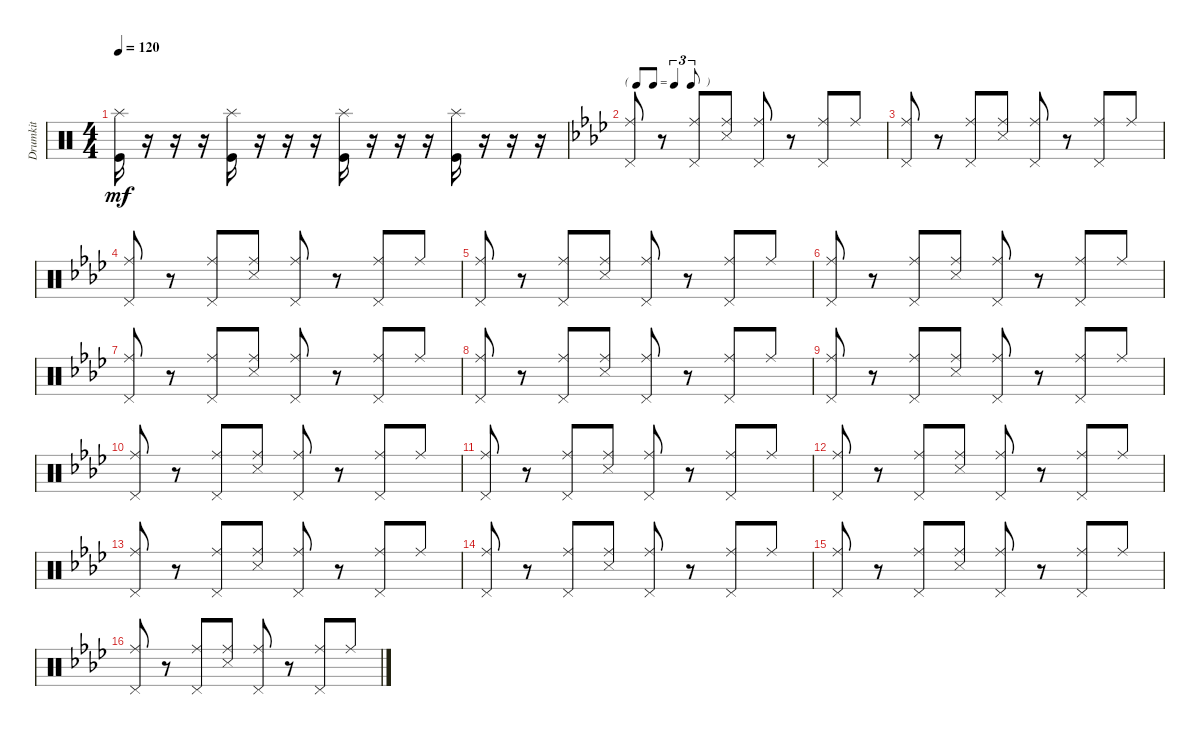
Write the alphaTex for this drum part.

\track ("Drumkit" "Drumkit") {instrument percussion}
\staff {score}
\articulation defaults
\ts (4 4)
\tempo 120
\clef neutral
\ks c
("Splash (hit)" "Kick (hit)").16{dy mf} r.16 r.16 r.16 ("Splash (hit)" "Kick (hit)").16 r.16 r.16 r.16 ("Splash (hit)" "Kick (hit)").16 r.16 r.16 r.16 ("Splash (hit)" "Kick (hit)").16 r.16 r.16 r.16 |
\tf triplet8th
\ks ab
("Pedal Hi-Hat (hit)" "Ride (middle)").8 r.8 ("Pedal Hi-Hat (hit)" "Ride (middle)").8 ("Ride (middle)" "Snare (side stick) 3").8 ("Pedal Hi-Hat (hit)" "Ride (middle)").8 r.8 ("Pedal Hi-Hat (hit)" "Ride (middle)").8 "Ride (middle)".8 |
("Pedal Hi-Hat (hit)" "Ride (middle)").8 r.8 ("Pedal Hi-Hat (hit)" "Ride (middle)").8 ("Ride (middle)" "Snare (side stick) 3").8 ("Pedal Hi-Hat (hit)" "Ride (middle)").8 r.8 ("Pedal Hi-Hat (hit)" "Ride (middle)").8 "Ride (middle)".8 |
("Pedal Hi-Hat (hit)" "Ride (middle)").8 r.8 ("Pedal Hi-Hat (hit)" "Ride (middle)").8 ("Ride (middle)" "Snare (side stick) 3").8 ("Pedal Hi-Hat (hit)" "Ride (middle)").8 r.8 ("Pedal Hi-Hat (hit)" "Ride (middle)").8 "Ride (middle)".8 |
("Pedal Hi-Hat (hit)" "Ride (middle)").8 r.8 ("Pedal Hi-Hat (hit)" "Ride (middle)").8 ("Ride (middle)" "Snare (side stick) 3").8 ("Pedal Hi-Hat (hit)" "Ride (middle)").8 r.8 ("Pedal Hi-Hat (hit)" "Ride (middle)").8 "Ride (middle)".8 |
("Pedal Hi-Hat (hit)" "Ride (middle)").8 r.8 ("Pedal Hi-Hat (hit)" "Ride (middle)").8 ("Ride (middle)" "Snare (side stick) 3").8 ("Pedal Hi-Hat (hit)" "Ride (middle)").8 r.8 ("Pedal Hi-Hat (hit)" "Ride (middle)").8 "Ride (middle)".8 |
("Pedal Hi-Hat (hit)" "Ride (middle)").8 r.8 ("Pedal Hi-Hat (hit)" "Ride (middle)").8 ("Ride (middle)" "Snare (side stick) 3").8 ("Pedal Hi-Hat (hit)" "Ride (middle)").8 r.8 ("Pedal Hi-Hat (hit)" "Ride (middle)").8 "Ride (middle)".8 |
("Pedal Hi-Hat (hit)" "Ride (middle)").8 r.8 ("Pedal Hi-Hat (hit)" "Ride (middle)").8 ("Ride (middle)" "Snare (side stick) 3").8 ("Pedal Hi-Hat (hit)" "Ride (middle)").8 r.8 ("Pedal Hi-Hat (hit)" "Ride (middle)").8 "Ride (middle)".8 |
("Pedal Hi-Hat (hit)" "Ride (middle)").8 r.8 ("Pedal Hi-Hat (hit)" "Ride (middle)").8 ("Ride (middle)" "Snare (side stick) 3").8 ("Pedal Hi-Hat (hit)" "Ride (middle)").8 r.8 ("Pedal Hi-Hat (hit)" "Ride (middle)").8 "Ride (middle)".8 |
("Pedal Hi-Hat (hit)" "Ride (middle)").8 r.8 ("Pedal Hi-Hat (hit)" "Ride (middle)").8 ("Ride (middle)" "Snare (side stick) 3").8 ("Pedal Hi-Hat (hit)" "Ride (middle)").8 r.8 ("Pedal Hi-Hat (hit)" "Ride (middle)").8 "Ride (middle)".8 |
("Pedal Hi-Hat (hit)" "Ride (middle)").8 r.8 ("Pedal Hi-Hat (hit)" "Ride (middle)").8 ("Ride (middle)" "Snare (side stick) 3").8 ("Pedal Hi-Hat (hit)" "Ride (middle)").8 r.8 ("Pedal Hi-Hat (hit)" "Ride (middle)").8 "Ride (middle)".8 |
("Pedal Hi-Hat (hit)" "Ride (middle)").8 r.8 ("Pedal Hi-Hat (hit)" "Ride (middle)").8 ("Ride (middle)" "Snare (side stick) 3").8 ("Pedal Hi-Hat (hit)" "Ride (middle)").8 r.8 ("Pedal Hi-Hat (hit)" "Ride (middle)").8 "Ride (middle)".8 |
("Pedal Hi-Hat (hit)" "Ride (middle)").8 r.8 ("Pedal Hi-Hat (hit)" "Ride (middle)").8 ("Ride (middle)" "Snare (side stick) 3").8 ("Pedal Hi-Hat (hit)" "Ride (middle)").8 r.8 ("Pedal Hi-Hat (hit)" "Ride (middle)").8 "Ride (middle)".8 |
("Pedal Hi-Hat (hit)" "Ride (middle)").8 r.8 ("Pedal Hi-Hat (hit)" "Ride (middle)").8 ("Ride (middle)" "Snare (side stick) 3").8 ("Pedal Hi-Hat (hit)" "Ride (middle)").8 r.8 ("Pedal Hi-Hat (hit)" "Ride (middle)").8 "Ride (middle)".8 |
("Pedal Hi-Hat (hit)" "Ride (middle)").8 r.8 ("Pedal Hi-Hat (hit)" "Ride (middle)").8 ("Ride (middle)" "Snare (side stick) 3").8 ("Pedal Hi-Hat (hit)" "Ride (middle)").8 r.8 ("Pedal Hi-Hat (hit)" "Ride (middle)").8 "Ride (middle)".8 |
("Pedal Hi-Hat (hit)" "Ride (middle)").8 r.8 ("Pedal Hi-Hat (hit)" "Ride (middle)").8 ("Ride (middle)" "Snare (side stick) 3").8 ("Pedal Hi-Hat (hit)" "Ride (middle)").8 r.8 ("Pedal Hi-Hat (hit)" "Ride (middle)").8 "Ride (middle)".8
